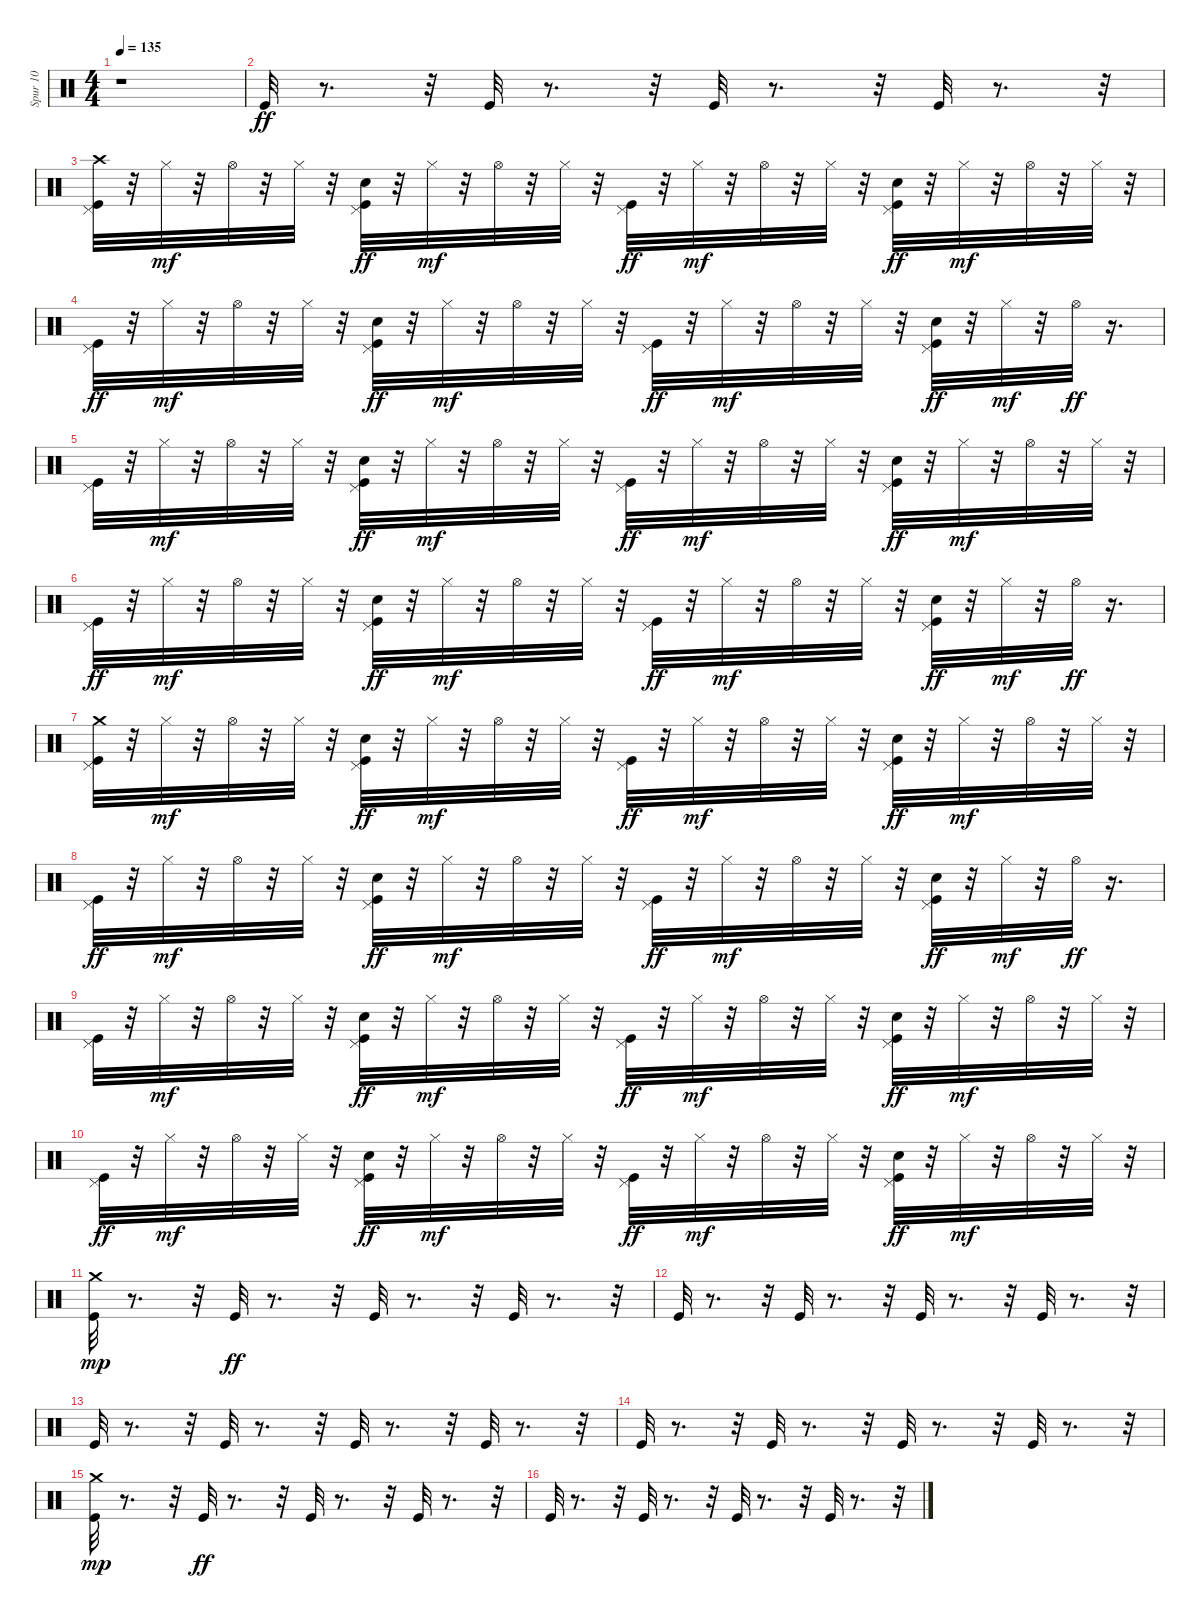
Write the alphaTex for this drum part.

\track ("Spur 10" "Spur 10") {instrument percussion}
\staff {score}
\articulation defaults
\ts (4 4)
\tempo 135
\clef neutral
\ks c
r.1{dy ff} |
"Kick (hit)".32{balance 9} r.8{d} r.32 "Kick (hit)".32 r.8{d} r.32 "Kick (hit)".32 r.8{d} r.32 "Kick (hit)".32 r.8{d} r.32 |
("Crash high (hit)" "Kick (hit)" "Pedal Hi-Hat (hit)").32 r.32 "Hi-Hat (closed)".32{dy mf} r.32 "Hi-Hat (open)".32 r.32 "Hi-Hat (closed)".32 r.32 ("Kick (hit)" "Hand Clap (hit)" "Pedal Hi-Hat (hit)").32{dy ff} r.32 "Hi-Hat (closed)".32{dy mf} r.32 "Hi-Hat (open)".32 r.32 "Hi-Hat (closed)".32 r.32 ("Kick (hit)" "Pedal Hi-Hat (hit)").32{dy ff} r.32 "Hi-Hat (closed)".32{dy mf} r.32 "Hi-Hat (open)".32 r.32 "Hi-Hat (closed)".32 r.32 ("Kick (hit)" "Hand Clap (hit)" "Pedal Hi-Hat (hit)").32{dy ff} r.32 "Hi-Hat (closed)".32{dy mf} r.32 "Hi-Hat (open)".32 r.32 "Hi-Hat (closed)".32 r.32 |
("Kick (hit)" "Pedal Hi-Hat (hit)").32{dy ff} r.32 "Hi-Hat (closed)".32{dy mf} r.32 "Hi-Hat (open)".32 r.32 "Hi-Hat (closed)".32 r.32 ("Kick (hit)" "Hand Clap (hit)" "Pedal Hi-Hat (hit)").32{dy ff} r.32 "Hi-Hat (closed)".32{dy mf} r.32 "Hi-Hat (open)".32 r.32 "Hi-Hat (closed)".32 r.32 ("Kick (hit)" "Pedal Hi-Hat (hit)").32{dy ff} r.32 "Hi-Hat (closed)".32{dy mf} r.32 "Hi-Hat (open)".32 r.32 "Hi-Hat (closed)".32 r.32 ("Kick (hit)" "Hand Clap (hit)" "Pedal Hi-Hat (hit)").32{dy ff} r.32 "Hi-Hat (closed)".32{dy mf} r.32 "Hi-Hat (open)".32{dy ff} r.16{d} |
("Kick (hit)" "Pedal Hi-Hat (hit)").32 r.32 "Hi-Hat (closed)".32{dy mf} r.32 "Hi-Hat (open)".32 r.32 "Hi-Hat (closed)".32 r.32 ("Kick (hit)" "Hand Clap (hit)" "Pedal Hi-Hat (hit)").32{dy ff} r.32 "Hi-Hat (closed)".32{dy mf} r.32 "Hi-Hat (open)".32 r.32 "Hi-Hat (closed)".32 r.32 ("Kick (hit)" "Pedal Hi-Hat (hit)").32{dy ff} r.32 "Hi-Hat (closed)".32{dy mf} r.32 "Hi-Hat (open)".32 r.32 "Hi-Hat (closed)".32 r.32 ("Kick (hit)" "Hand Clap (hit)" "Pedal Hi-Hat (hit)").32{dy ff} r.32 "Hi-Hat (closed)".32{dy mf} r.32 "Hi-Hat (open)".32 r.32 "Hi-Hat (closed)".32 r.32 |
("Kick (hit)" "Pedal Hi-Hat (hit)").32{dy ff} r.32 "Hi-Hat (closed)".32{dy mf} r.32 "Hi-Hat (open)".32 r.32 "Hi-Hat (closed)".32 r.32 ("Kick (hit)" "Hand Clap (hit)" "Pedal Hi-Hat (hit)").32{dy ff} r.32 "Hi-Hat (closed)".32{dy mf} r.32 "Hi-Hat (open)".32 r.32 "Hi-Hat (closed)".32 r.32 ("Kick (hit)" "Pedal Hi-Hat (hit)").32{dy ff} r.32 "Hi-Hat (closed)".32{dy mf} r.32 "Hi-Hat (open)".32 r.32 "Hi-Hat (closed)".32 r.32 ("Kick (hit)" "Hand Clap (hit)" "Pedal Hi-Hat (hit)").32{dy ff} r.32 "Hi-Hat (closed)".32{dy mf} r.32 "Hi-Hat (open)".32{dy ff} r.16{d} |
("Crash medium (hit)" "Kick (hit)" "Pedal Hi-Hat (hit)").32 r.32 "Hi-Hat (closed)".32{dy mf} r.32 "Hi-Hat (open)".32 r.32 "Hi-Hat (closed)".32 r.32 ("Kick (hit)" "Hand Clap (hit)" "Pedal Hi-Hat (hit)").32{dy ff} r.32 "Hi-Hat (closed)".32{dy mf} r.32 "Hi-Hat (open)".32 r.32 "Hi-Hat (closed)".32 r.32 ("Kick (hit)" "Pedal Hi-Hat (hit)").32{dy ff} r.32 "Hi-Hat (closed)".32{dy mf} r.32 "Hi-Hat (open)".32 r.32 "Hi-Hat (closed)".32 r.32 ("Kick (hit)" "Hand Clap (hit)" "Pedal Hi-Hat (hit)").32{dy ff} r.32 "Hi-Hat (closed)".32{dy mf} r.32 "Hi-Hat (open)".32 r.32 "Hi-Hat (closed)".32 r.32 |
("Kick (hit)" "Pedal Hi-Hat (hit)").32{dy ff} r.32 "Hi-Hat (closed)".32{dy mf} r.32 "Hi-Hat (open)".32 r.32 "Hi-Hat (closed)".32 r.32 ("Kick (hit)" "Hand Clap (hit)" "Pedal Hi-Hat (hit)").32{dy ff} r.32 "Hi-Hat (closed)".32{dy mf} r.32 "Hi-Hat (open)".32 r.32 "Hi-Hat (closed)".32 r.32 ("Kick (hit)" "Pedal Hi-Hat (hit)").32{dy ff} r.32 "Hi-Hat (closed)".32{dy mf} r.32 "Hi-Hat (open)".32 r.32 "Hi-Hat (closed)".32 r.32 ("Kick (hit)" "Hand Clap (hit)" "Pedal Hi-Hat (hit)").32{dy ff} r.32 "Hi-Hat (closed)".32{dy mf} r.32 "Hi-Hat (open)".32{dy ff} r.16{d} |
("Kick (hit)" "Pedal Hi-Hat (hit)").32 r.32 "Hi-Hat (closed)".32{dy mf} r.32 "Hi-Hat (open)".32 r.32 "Hi-Hat (closed)".32 r.32 ("Kick (hit)" "Hand Clap (hit)" "Pedal Hi-Hat (hit)").32{dy ff} r.32 "Hi-Hat (closed)".32{dy mf} r.32 "Hi-Hat (open)".32 r.32 "Hi-Hat (closed)".32 r.32 ("Kick (hit)" "Pedal Hi-Hat (hit)").32{dy ff} r.32 "Hi-Hat (closed)".32{dy mf} r.32 "Hi-Hat (open)".32 r.32 "Hi-Hat (closed)".32 r.32 ("Kick (hit)" "Hand Clap (hit)" "Pedal Hi-Hat (hit)").32{dy ff} r.32 "Hi-Hat (closed)".32{dy mf} r.32 "Hi-Hat (open)".32 r.32 "Hi-Hat (closed)".32 r.32 |
("Kick (hit)" "Pedal Hi-Hat (hit)").32{dy ff} r.32 "Hi-Hat (closed)".32{dy mf} r.32 "Hi-Hat (open)".32 r.32 "Hi-Hat (closed)".32 r.32 ("Kick (hit)" "Hand Clap (hit)" "Pedal Hi-Hat (hit)").32{dy ff} r.32 "Hi-Hat (closed)".32{dy mf} r.32 "Hi-Hat (open)".32 r.32 "Hi-Hat (closed)".32 r.32 ("Kick (hit)" "Pedal Hi-Hat (hit)").32{dy ff} r.32 "Hi-Hat (closed)".32{dy mf} r.32 "Hi-Hat (open)".32 r.32 "Hi-Hat (closed)".32 r.32 ("Kick (hit)" "Hand Clap (hit)" "Pedal Hi-Hat (hit)").32{dy ff} r.32 "Hi-Hat (closed)".32{dy mf} r.32 "Hi-Hat (open)".32 r.32 "Hi-Hat (closed)".32 r.32 |
("Kick (hit)" "Crash medium (hit)").32{dy mp} r.8{d} r.32 "Kick (hit)".32{dy ff} r.8{d} r.32 "Kick (hit)".32 r.8{d} r.32 "Kick (hit)".32 r.8{d} r.32 |
"Kick (hit)".32 r.8{d} r.32 "Kick (hit)".32 r.8{d} r.32 "Kick (hit)".32 r.8{d} r.32 "Kick (hit)".32 r.8{d} r.32 |
"Kick (hit)".32 r.8{d} r.32 "Kick (hit)".32 r.8{d} r.32 "Kick (hit)".32 r.8{d} r.32 "Kick (hit)".32 r.8{d} r.32 |
"Kick (hit)".32 r.8{d} r.32 "Kick (hit)".32 r.8{d} r.32 "Kick (hit)".32 r.8{d} r.32 "Kick (hit)".32 r.8{d} r.32 |
("Kick (hit)" "Crash medium (hit)").32{dy mp} r.8{d} r.32 "Kick (hit)".32{dy ff} r.8{d} r.32 "Kick (hit)".32 r.8{d} r.32 "Kick (hit)".32 r.8{d} r.32 |
"Kick (hit)".32 r.8{d} r.32 "Kick (hit)".32 r.8{d} r.32 "Kick (hit)".32 r.8{d} r.32 "Kick (hit)".32 r.8{d} r.32
